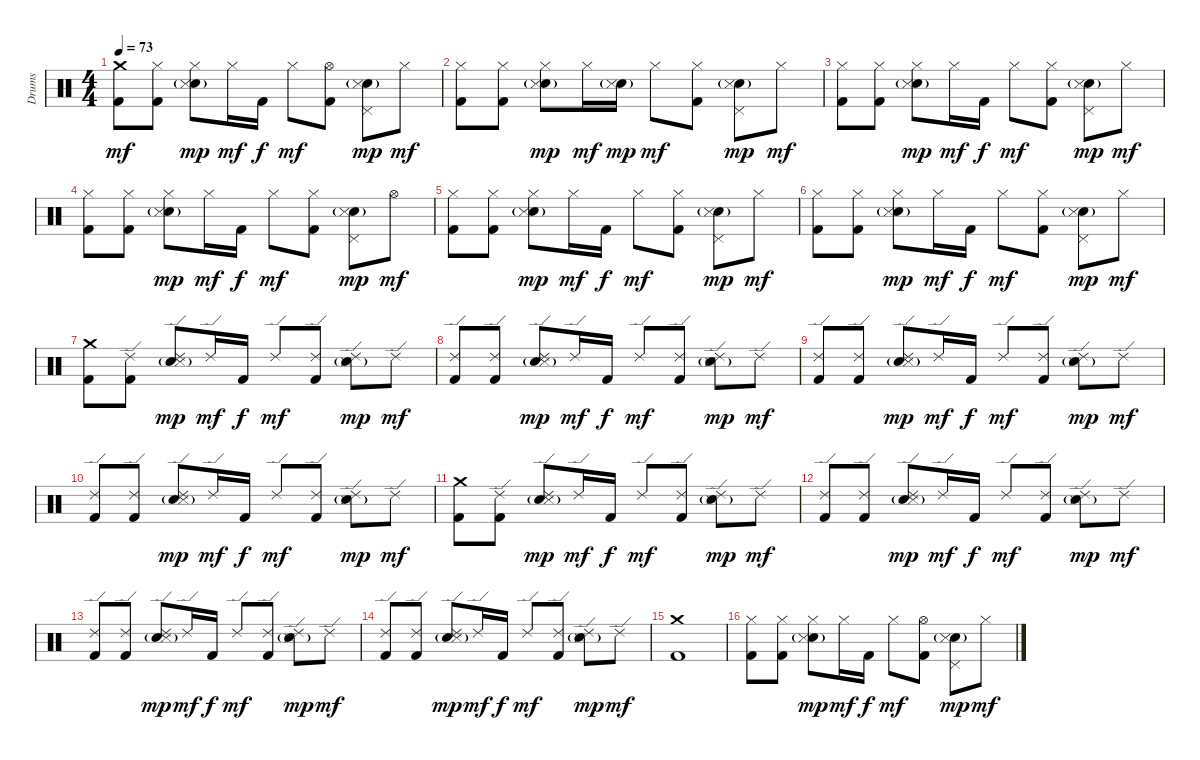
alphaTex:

\track ("Drums" "Drums") {instrument percussion}
\staff {score}
\articulation defaults
\ts (4 4)
\tempo 73
\clef neutral
\ks c
("Crash medium (hit)" "Kick (hit) 2").8{dy mf} ("Hi-Hat (closed)" "Kick (hit) 2").8 ("Hi-Hat (closed)" "Snare (hit) 2"{g} "Snare (side stick) 3").8{dy mp} "Hi-Hat (closed)".16{dy mf} "Kick (hit) 2".16{dy f} "Hi-Hat (closed)".8{dy mf} ("Hi-Hat (open)" "Kick (hit) 2").8 ("Pedal Hi-Hat (hit)" "Snare (hit) 2"{g} "Snare (side stick) 3").8{dy mp} "Hi-Hat (closed)".8{dy mf} |
("Hi-Hat (closed)" "Kick (hit) 2").8 ("Hi-Hat (closed)" "Kick (hit) 2").8 ("Hi-Hat (closed)" "Snare (hit) 2"{g} "Snare (side stick) 3").8{dy mp} "Hi-Hat (closed)".16{dy mf} ("Snare (hit) 2"{g} "Snare (side stick) 3").16{dy mp} "Hi-Hat (closed)".8{dy mf} ("Hi-Hat (closed)" "Kick (hit) 2").8 ("Pedal Hi-Hat (hit)" "Snare (hit) 2"{g} "Snare (side stick) 3").8{dy mp} "Hi-Hat (closed)".8{dy mf} |
("Hi-Hat (closed)" "Kick (hit) 2").8 ("Hi-Hat (closed)" "Kick (hit) 2").8 ("Hi-Hat (closed)" "Snare (hit) 2"{g} "Snare (side stick) 3").8{dy mp} "Hi-Hat (closed)".16{dy mf} "Kick (hit) 2".16{dy f} "Hi-Hat (closed)".8{dy mf} ("Hi-Hat (closed)" "Kick (hit) 2").8 ("Pedal Hi-Hat (hit)" "Snare (hit) 2"{g} "Snare (side stick) 3").8{dy mp} "Hi-Hat (closed)".8{dy mf} |
("Hi-Hat (closed)" "Kick (hit) 2").8 ("Hi-Hat (closed)" "Kick (hit) 2").8 ("Hi-Hat (closed)" "Snare (hit) 2"{g} "Snare (side stick) 3").8{dy mp} "Hi-Hat (closed)".16{dy mf} "Kick (hit) 2".16{dy f} "Hi-Hat (closed)".8{dy mf} ("Hi-Hat (closed)" "Kick (hit) 2").8 ("Pedal Hi-Hat (hit)" "Snare (hit) 2"{g} "Snare (side stick) 3").8{dy mp} "Hi-Hat (open)".8{dy mf} |
("Hi-Hat (closed)" "Kick (hit) 2").8 ("Hi-Hat (closed)" "Kick (hit) 2").8 ("Hi-Hat (closed)" "Snare (hit) 2"{g} "Snare (side stick) 3").8{dy mp} "Hi-Hat (closed)".16{dy mf} "Kick (hit) 2".16{dy f} "Hi-Hat (closed)".8{dy mf} ("Hi-Hat (closed)" "Kick (hit) 2").8 ("Pedal Hi-Hat (hit)" "Snare (hit) 2"{g} "Snare (side stick) 3").8{dy mp} "Hi-Hat (closed)".8{dy mf} |
("Hi-Hat (closed)" "Kick (hit) 2").8 ("Hi-Hat (closed)" "Kick (hit) 2").8 ("Hi-Hat (closed)" "Snare (hit) 2"{g} "Snare (side stick) 3").8{dy mp} "Hi-Hat (closed)".16{dy mf} "Kick (hit) 2".16{dy f} "Hi-Hat (closed)".8{dy mf} ("Hi-Hat (closed)" "Kick (hit) 2").8 ("Pedal Hi-Hat (hit)" "Snare (hit) 2"{g} "Snare (side stick) 3").8{dy mp} "Hi-Hat (closed)".8{dy mf} |
("Crash medium (hit)" "Kick (hit) 2").8 ("Ride (edge) 2" "Kick (hit) 2").8 ("Ride (edge) 2" "Snare (hit) 2"{g} "Snare (side stick) 3").8{dy mp} "Ride (edge) 2".16{dy mf} "Kick (hit) 2".16{dy f} "Ride (edge) 2".8{dy mf} ("Ride (edge) 2" "Kick (hit) 2").8 ("Ride (edge) 2" "Snare (hit) 2"{g} "Snare (side stick) 3").8{dy mp} "Ride (edge) 2".8{dy mf} |
("Ride (edge) 2" "Kick (hit) 2").8 ("Ride (edge) 2" "Kick (hit) 2").8 ("Ride (edge) 2" "Snare (hit) 2"{g} "Snare (side stick) 3").8{dy mp} "Ride (edge) 2".16{dy mf} "Kick (hit) 2".16{dy f} "Ride (edge) 2".8{dy mf} ("Ride (edge) 2" "Kick (hit) 2").8 ("Ride (edge) 2" "Snare (hit) 2"{g} "Snare (side stick) 3").8{dy mp} "Ride (edge) 2".8{dy mf} |
("Ride (edge) 2" "Kick (hit) 2").8 ("Ride (edge) 2" "Kick (hit) 2").8 ("Ride (edge) 2" "Snare (hit) 2"{g} "Snare (side stick) 3").8{dy mp} "Ride (edge) 2".16{dy mf} "Kick (hit) 2".16{dy f} "Ride (edge) 2".8{dy mf} ("Ride (edge) 2" "Kick (hit) 2").8 ("Ride (edge) 2" "Snare (hit) 2"{g} "Snare (side stick) 3").8{dy mp} "Ride (edge) 2".8{dy mf} |
("Ride (edge) 2" "Kick (hit) 2").8 ("Ride (edge) 2" "Kick (hit) 2").8 ("Ride (edge) 2" "Snare (hit) 2"{g} "Snare (side stick) 3").8{dy mp} "Ride (edge) 2".16{dy mf} "Kick (hit) 2".16{dy f} "Ride (edge) 2".8{dy mf} ("Ride (edge) 2" "Kick (hit) 2").8 ("Ride (edge) 2" "Snare (hit) 2"{g} "Snare (side stick) 3").8{dy mp} "Ride (edge) 2".8{dy mf} |
("Crash medium (hit)" "Kick (hit) 2").8 ("Ride (edge) 2" "Kick (hit) 2").8 ("Ride (edge) 2" "Snare (hit) 2"{g} "Snare (side stick) 3").8{dy mp} "Ride (edge) 2".16{dy mf} "Kick (hit) 2".16{dy f} "Ride (edge) 2".8{dy mf} ("Ride (edge) 2" "Kick (hit) 2").8 ("Ride (edge) 2" "Snare (hit) 2"{g} "Snare (side stick) 3").8{dy mp} "Ride (edge) 2".8{dy mf} |
("Ride (edge) 2" "Kick (hit) 2").8 ("Ride (edge) 2" "Kick (hit) 2").8 ("Ride (edge) 2" "Snare (hit) 2"{g} "Snare (side stick) 3").8{dy mp} "Ride (edge) 2".16{dy mf} "Kick (hit) 2".16{dy f} "Ride (edge) 2".8{dy mf} ("Ride (edge) 2" "Kick (hit) 2").8 ("Ride (edge) 2" "Snare (hit) 2"{g} "Snare (side stick) 3").8{dy mp} "Ride (edge) 2".8{dy mf} |
("Ride (edge) 2" "Kick (hit) 2").8 ("Ride (edge) 2" "Kick (hit) 2").8 ("Ride (edge) 2" "Snare (hit) 2"{g} "Snare (side stick) 3").8{dy mp} "Ride (edge) 2".16{dy mf} "Kick (hit) 2".16{dy f} "Ride (edge) 2".8{dy mf} ("Ride (edge) 2" "Kick (hit) 2").8 ("Ride (edge) 2" "Snare (hit) 2"{g} "Snare (side stick) 3").8{dy mp} "Ride (edge) 2".8{dy mf} |
("Ride (edge) 2" "Kick (hit) 2").8 ("Ride (edge) 2" "Kick (hit) 2").8 ("Ride (edge) 2" "Snare (hit) 2"{g} "Snare (side stick) 3").8{dy mp} "Ride (edge) 2".16{dy mf} "Kick (hit) 2".16{dy f} "Ride (edge) 2".8{dy mf} ("Ride (edge) 2" "Kick (hit) 2").8 ("Ride (edge) 2" "Snare (hit) 2"{g} "Snare (side stick) 3").8{dy mp} "Ride (edge) 2".8{dy mf} |
("Crash medium (hit)" "Kick (hit) 2").1 |
("Hi-Hat (closed)" "Kick (hit) 2").8 ("Hi-Hat (closed)" "Kick (hit) 2").8 ("Hi-Hat (closed)" "Snare (hit) 2"{g} "Snare (side stick) 3").8{dy mp} "Hi-Hat (closed)".16{dy mf} "Kick (hit) 2".16{dy f} "Hi-Hat (closed)".8{dy mf} ("Hi-Hat (open)" "Kick (hit) 2").8 ("Pedal Hi-Hat (hit)" "Snare (hit) 2"{g} "Snare (side stick) 3").8{dy mp} "Hi-Hat (closed)".8{dy mf}
